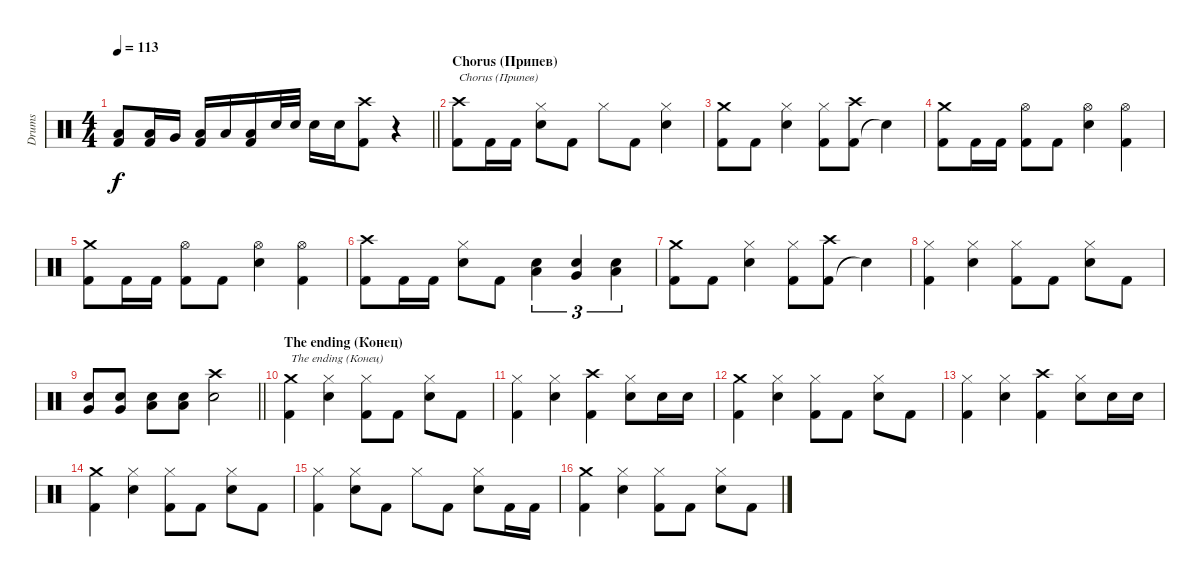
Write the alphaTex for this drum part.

\track ("Drums" "Drums") {instrument percussion}
\staff {score}
\articulation defaults
\ts (4 4)
\tempo 113
\clef neutral
\barLineRight lightlight
\ks c
("Kick (hit) 2" "Low Floor Tom (hit)").8{dy f} ("Kick (hit) 2" "Low Tom (hit)").16 "Very Low Tom (hit)".16 ("Kick (hit) 2" "Low Floor Tom (hit)").16 "Low Floor Tom (hit)".16 ("Kick (hit) 2" "Low Floor Tom (hit)").16 "Snare (hit) 2".32 "Snare (hit) 2".32 "Snare (hit) 2".16 "Snare (hit) 2".16 ("Kick (hit) 2" "Crash high (hit)").8 r.4 |
\section ("" "Chorus (Припев)")
("Kick (hit) 2" "Crash high (hit)").8{txt "Chorus (Припев)"} "Kick (hit) 2".16 "Kick (hit) 2".16 ("Snare (hit) 2" "Hi-Hat (closed)").8 "Kick (hit) 2".8 "Hi-Hat (closed)".8 "Kick (hit) 2".8 ("Snare (hit) 2" "Hi-Hat (closed)").4 |
("Kick (hit) 2" "Crash medium (hit)").8 "Kick (hit) 2".8 ("Snare (hit) 2" "Hi-Hat (closed)").4 ("Kick (hit) 2" "Hi-Hat (closed)").8 ("Kick (hit) 2" "Crash high (hit)").8 "Snare (hit)"{t}.4 |
("Kick (hit) 2" "Crash medium (hit)").8 "Kick (hit) 2".16 "Kick (hit) 2".16 ("Kick (hit) 2" "Hi-Hat (open)").8 "Kick (hit) 2".8 ("Snare (hit) 2" "Hi-Hat (open)").4 ("Kick (hit) 2" "Hi-Hat (open)").4 |
("Kick (hit) 2" "Crash medium (hit)").8 "Kick (hit) 2".16 "Kick (hit) 2".16 ("Kick (hit) 2" "Hi-Hat (open)").8 "Kick (hit) 2".8 ("Snare (hit) 2" "Hi-Hat (open)").4 ("Kick (hit) 2" "Hi-Hat (open)").4 |
("Kick (hit) 2" "Crash high (hit)").8 "Kick (hit) 2".16 "Kick (hit) 2".16 ("Snare (hit) 2" "Hi-Hat (closed)").8 "Kick (hit) 2".8 ("Snare (hit) 2" "Low Tom (hit)").4{tu (3 2)} ("Snare (hit) 2" "Very Low Tom (hit)").4{tu (3 2)} ("Snare (hit) 2" "Low Floor Tom (hit)").4{tu (3 2)} |
("Kick (hit) 2" "Crash medium (hit)").8 "Kick (hit) 2".8 ("Snare (hit) 2" "Hi-Hat (closed)").4 ("Kick (hit) 2" "Hi-Hat (closed)").8 ("Kick (hit) 2" "Crash high (hit)").8 "Snare (hit)"{t}.4 |
("Kick (hit) 2" "Hi-Hat (closed)").4 ("Snare (hit) 2" "Hi-Hat (closed)").4 ("Kick (hit) 2" "Hi-Hat (closed)").8 "Kick (hit) 2".8 ("Snare (hit) 2" "Hi-Hat (closed)").8 "Kick (hit) 2".8 |
\barLineRight lightlight
("Snare (hit) 2" "Very Low Tom (hit)").8 ("Snare (hit) 2" "Very Low Tom (hit)").8 ("Snare (hit) 2" "Low Floor Tom (hit)").8 ("Snare (hit) 2" "Low Floor Tom (hit)").8 ("Snare (hit) 2" "Crash high (hit)").2 |
\section ("" "The ending (Конец)")
("Kick (hit) 2" "Crash medium (hit)").4{txt "The ending (Конец)"} ("Snare (hit) 2" "Hi-Hat (closed)").4 ("Kick (hit) 2" "Hi-Hat (closed)").8 "Kick (hit) 2".8 ("Snare (hit) 2" "Hi-Hat (closed)").8 "Kick (hit) 2".8 |
("Kick (hit) 2" "Hi-Hat (closed)").4 ("Snare (hit) 2" "Hi-Hat (closed)").4 ("Kick (hit) 2" "Crash high (hit)").4 ("Snare (hit) 2" "Hi-Hat (closed)").8 "Snare (hit) 2".16 "Snare (hit) 2".16 |
("Kick (hit) 2" "Crash medium (hit)").4 ("Snare (hit) 2" "Hi-Hat (closed)").4 ("Kick (hit) 2" "Hi-Hat (closed)").8 "Kick (hit) 2".8 ("Snare (hit) 2" "Hi-Hat (closed)").8 "Kick (hit) 2".8 |
("Kick (hit) 2" "Hi-Hat (closed)").4 ("Snare (hit) 2" "Hi-Hat (closed)").4 ("Kick (hit) 2" "Crash high (hit)").4 ("Snare (hit) 2" "Hi-Hat (closed)").8 "Snare (hit) 2".16 "Snare (hit) 2".16 |
("Kick (hit) 2" "Crash medium (hit)").4 ("Snare (hit) 2" "Hi-Hat (closed)").4 ("Kick (hit) 2" "Hi-Hat (closed)").8 "Kick (hit) 2".8 ("Snare (hit) 2" "Hi-Hat (closed)").8 "Kick (hit) 2".8 |
("Kick (hit) 2" "Hi-Hat (closed)").4 ("Snare (hit) 2" "Hi-Hat (closed)").8 "Kick (hit) 2".8 "Hi-Hat (closed)".8 "Kick (hit) 2".8 ("Snare (hit) 2" "Hi-Hat (closed)").8 "Kick (hit) 2".16 "Kick (hit) 2".16 |
("Kick (hit) 2" "Crash medium (hit)").4 ("Snare (hit) 2" "Hi-Hat (closed)").4 ("Kick (hit) 2" "Hi-Hat (closed)").8 "Kick (hit) 2".8 ("Snare (hit) 2" "Hi-Hat (closed)").8 "Kick (hit) 2".8
